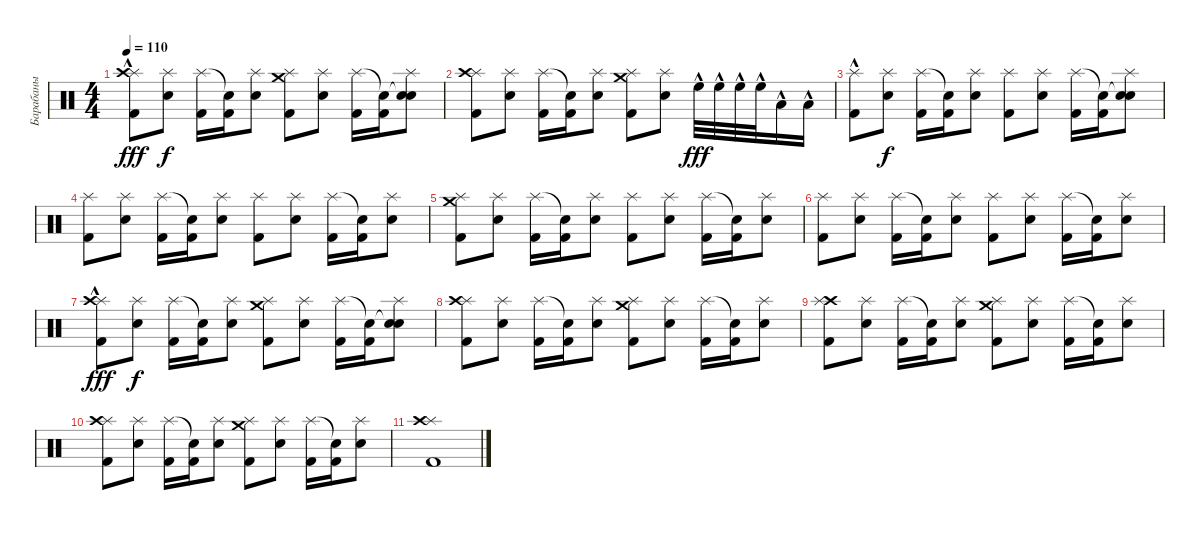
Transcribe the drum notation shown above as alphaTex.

\track ("Барабаны" "Барабаны") {instrument percussion}
\staff {score}
\articulation defaults
\ts (4 4)
\tempo 110
\clef neutral
\ks c
("Kick (hit) 2" "Splash (hit)"{hac} "Crash high (hit)").8{dy fff} ("Electric Snare (hit)" "Splash (hit)").8{dy f} ("Kick (hit) 2" "Splash (hit)").16 ("Kick (hit) 2" "Snare (hit)"{t}).16 ("Electric Snare (hit)" "Splash (hit)").8 ("Kick (hit) 2" "Crash medium (hit)" "Splash (hit)").8 ("Electric Snare (hit)" "Splash (hit)").8 ("Kick (hit) 2" "Splash (hit)").16 ("Kick (hit) 2" "Snare (hit)"{t}).16 ("Electric Snare (hit)" "Snare (hit)"{t} "Splash (hit)").8 |
("Kick (hit) 2" "Splash (hit)" "Crash high (hit)").8 ("Electric Snare (hit)" "Splash (hit)").8 ("Kick (hit) 2" "Splash (hit)").16 ("Kick (hit) 2" "Snare (hit)"{t}).16 ("Electric Snare (hit)" "Splash (hit)").8 ("Kick (hit) 2" "Crash medium (hit)" "Splash (hit)").8 ("Electric Snare (hit)" "Splash (hit)").8 "High Floor Tom (hit)"{hac}.32{dy fff} "High Floor Tom (hit)"{hac}.32 "High Floor Tom (hit)"{hac}.32 "High Floor Tom (hit)"{hac}.32 "Low Tom (hit)"{hac}.16 "Low Tom (hit)"{hac}.16 |
("Kick (hit) 2" "Splash (hit)"{hac}).8 ("Electric Snare (hit)" "Splash (hit)").8{dy f} ("Kick (hit) 2" "Splash (hit)").16 ("Kick (hit) 2" "Snare (hit)"{t}).16 ("Electric Snare (hit)" "Splash (hit)").8 ("Kick (hit) 2" "Splash (hit)").8 ("Electric Snare (hit)" "Splash (hit)").8 ("Kick (hit) 2" "Splash (hit)").16 ("Kick (hit) 2" "Snare (hit)"{t}).16 ("Electric Snare (hit)" "Snare (hit)"{t} "Splash (hit)").8 |
("Kick (hit) 2" "Splash (hit)").8 ("Electric Snare (hit)" "Splash (hit)").8 ("Kick (hit) 2" "Splash (hit)").16 ("Kick (hit) 2" "Snare (hit)"{t}).16 ("Electric Snare (hit)" "Splash (hit)").8 ("Kick (hit) 2" "Splash (hit)").8 ("Electric Snare (hit)" "Splash (hit)").8 ("Kick (hit) 2" "Splash (hit)").16 ("Kick (hit) 2" "Snare (hit)"{t}).16 ("Electric Snare (hit)" "Splash (hit)").8 |
("Kick (hit) 2" "Crash medium (hit)" "Splash (hit)").8 ("Electric Snare (hit)" "Splash (hit)").8 ("Kick (hit) 2" "Splash (hit)").16 ("Kick (hit) 2" "Snare (hit)"{t}).16 ("Electric Snare (hit)" "Splash (hit)").8 ("Kick (hit) 2" "Splash (hit)").8 ("Electric Snare (hit)" "Splash (hit)").8 ("Kick (hit) 2" "Splash (hit)").16 ("Kick (hit) 2" "Snare (hit)"{t}).16 ("Electric Snare (hit)" "Splash (hit)").8 |
("Kick (hit) 2" "Splash (hit)").8 ("Electric Snare (hit)" "Splash (hit)").8 ("Kick (hit) 2" "Splash (hit)").16 ("Kick (hit) 2" "Snare (hit)"{t}).16 ("Electric Snare (hit)" "Splash (hit)").8 ("Kick (hit) 2" "Splash (hit)").8 ("Electric Snare (hit)" "Splash (hit)").8 ("Kick (hit) 2" "Splash (hit)").16 ("Kick (hit) 2" "Snare (hit)"{t}).16 ("Electric Snare (hit)" "Splash (hit)").8 |
("Kick (hit) 2" "Splash (hit)"{hac} "Crash high (hit)").8{dy fff} ("Electric Snare (hit)" "Splash (hit)").8{dy f} ("Kick (hit) 2" "Splash (hit)").16 ("Kick (hit) 2" "Snare (hit)"{t}).16 ("Electric Snare (hit)" "Splash (hit)").8 ("Kick (hit) 2" "Crash medium (hit)" "Splash (hit)").8 ("Electric Snare (hit)" "Splash (hit)").8 ("Kick (hit) 2" "Splash (hit)").16 ("Kick (hit) 2" "Snare (hit)"{t}).16 ("Electric Snare (hit)" "Snare (hit)"{t} "Splash (hit)").8 |
("Kick (hit) 2" "Splash (hit)" "Crash high (hit)").8 ("Electric Snare (hit)" "Splash (hit)").8 ("Kick (hit) 2" "Splash (hit)").16 ("Kick (hit) 2" "Snare (hit)"{t}).16 ("Electric Snare (hit)" "Splash (hit)").8 ("Kick (hit) 2" "Crash medium (hit)" "Splash (hit)").8 ("Electric Snare (hit)" "Splash (hit)").8 ("Kick (hit) 2" "Splash (hit)").16 ("Kick (hit) 2" "Snare (hit)"{t}).16 ("Electric Snare (hit)" "Splash (hit)").8 |
("Kick (hit) 2" "Crash high (hit)" "Splash (hit)").8 ("Electric Snare (hit)" "Splash (hit)").8 ("Kick (hit) 2" "Splash (hit)").16 ("Kick (hit) 2" "Snare (hit)"{t}).16 ("Electric Snare (hit)" "Splash (hit)").8 ("Kick (hit) 2" "Crash medium (hit)" "Splash (hit)").8 ("Electric Snare (hit)" "Splash (hit)").8 ("Kick (hit) 2" "Splash (hit)").16 ("Kick (hit) 2" "Snare (hit)"{t}).16 ("Electric Snare (hit)" "Splash (hit)").8 |
("Kick (hit) 2" "Splash (hit)" "Crash high (hit)").8 ("Electric Snare (hit)" "Splash (hit)").8 ("Kick (hit) 2" "Splash (hit)").16 ("Kick (hit) 2" "Snare (hit)"{t}).16 ("Electric Snare (hit)" "Splash (hit)").8 ("Kick (hit) 2" "Crash medium (hit)" "Splash (hit)").8 ("Electric Snare (hit)" "Splash (hit)").8 ("Kick (hit) 2" "Splash (hit)").16 ("Kick (hit) 2" "Snare (hit)"{t}).16 ("Electric Snare (hit)" "Splash (hit)").8 |
("Kick (hit) 2" "Splash (hit)" "Crash high (hit)").1
